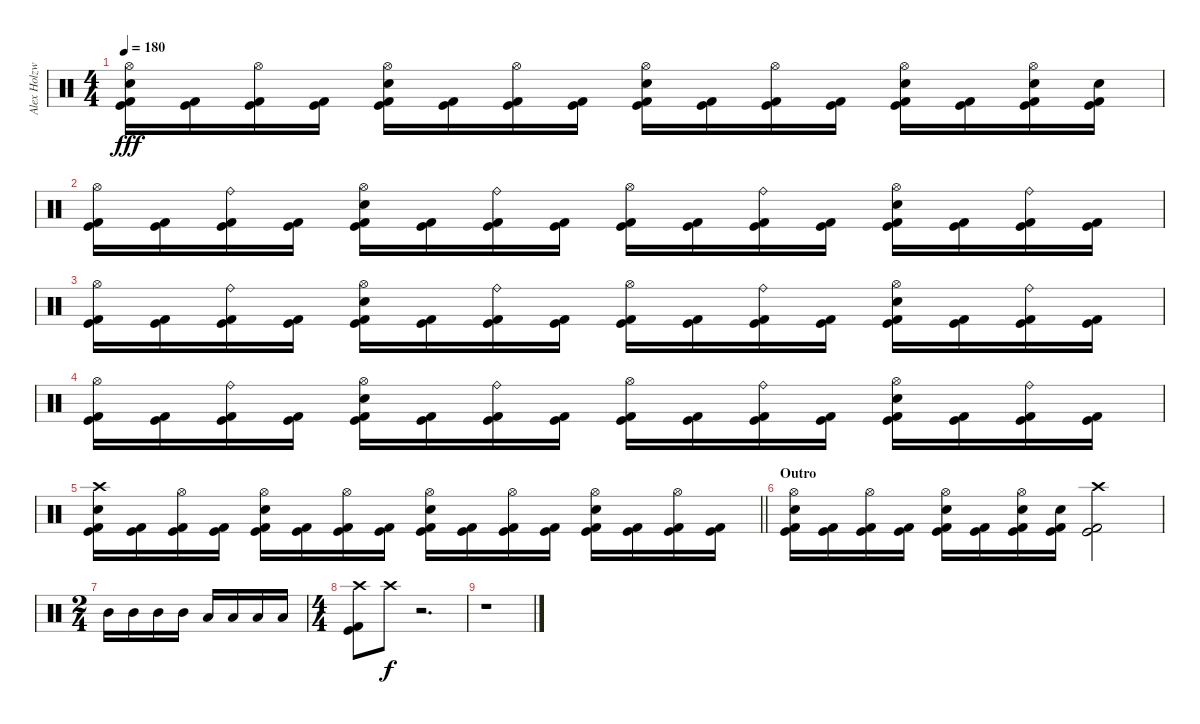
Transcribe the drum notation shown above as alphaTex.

\track ("Alex Holzwarth" "Alex Holzw") {instrument percussion}
\staff {score}
\articulation defaults
\ts (4 4)
\tempo 180
\clef neutral
\ks c
("Hi-Hat (open)" "Snare (hit) 2" "Kick (hit)" "Kick (hit) 2").16{dy fff} ("Kick (hit)" "Kick (hit) 2").16 ("Hi-Hat (open)" "Kick (hit)" "Kick (hit) 2").16 ("Kick (hit)" "Kick (hit) 2").16 ("Hi-Hat (open)" "Snare (hit) 2" "Kick (hit)" "Kick (hit) 2").16 ("Kick (hit)" "Kick (hit) 2").16 ("Hi-Hat (open)" "Kick (hit)" "Kick (hit) 2").16 ("Kick (hit)" "Kick (hit) 2").16 ("Hi-Hat (open)" "Snare (hit) 2" "Kick (hit)" "Kick (hit) 2").16 ("Kick (hit)" "Kick (hit) 2").16 ("Hi-Hat (open)" "Kick (hit)" "Kick (hit) 2").16 ("Kick (hit)" "Kick (hit) 2").16 ("Hi-Hat (open)" "Snare (hit) 2" "Kick (hit)" "Kick (hit) 2").16 ("Kick (hit)" "Kick (hit) 2").16 ("Hi-Hat (open)" "Snare (hit) 2" "Kick (hit)" "Kick (hit) 2").16 ("Snare (hit) 2" "Kick (hit)" "Kick (hit) 2").16 |
("Hi-Hat (open)" "Kick (hit)" "Kick (hit) 2").16 ("Kick (hit)" "Kick (hit) 2").16 ("Ride (bell)" "Kick (hit)" "Kick (hit) 2").16 ("Kick (hit)" "Kick (hit) 2").16 ("Hi-Hat (open)" "Snare (hit) 2" "Kick (hit)" "Kick (hit) 2").16 ("Kick (hit)" "Kick (hit) 2").16 ("Ride (bell)" "Kick (hit)" "Kick (hit) 2").16 ("Kick (hit)" "Kick (hit) 2").16 ("Hi-Hat (open)" "Kick (hit)" "Kick (hit) 2").16 ("Kick (hit)" "Kick (hit) 2").16 ("Ride (bell)" "Kick (hit)" "Kick (hit) 2").16 ("Kick (hit)" "Kick (hit) 2").16 ("Hi-Hat (open)" "Snare (hit) 2" "Kick (hit)" "Kick (hit) 2").16 ("Kick (hit)" "Kick (hit) 2").16 ("Ride (bell)" "Kick (hit)" "Kick (hit) 2").16 ("Kick (hit)" "Kick (hit) 2").16 |
("Hi-Hat (open)" "Kick (hit)" "Kick (hit) 2").16 ("Kick (hit)" "Kick (hit) 2").16 ("Ride (bell)" "Kick (hit)" "Kick (hit) 2").16 ("Kick (hit)" "Kick (hit) 2").16 ("Hi-Hat (open)" "Snare (hit) 2" "Kick (hit)" "Kick (hit) 2").16 ("Kick (hit)" "Kick (hit) 2").16 ("Ride (bell)" "Kick (hit)" "Kick (hit) 2").16 ("Kick (hit)" "Kick (hit) 2").16 ("Hi-Hat (open)" "Kick (hit)" "Kick (hit) 2").16 ("Kick (hit)" "Kick (hit) 2").16 ("Ride (bell)" "Kick (hit)" "Kick (hit) 2").16 ("Kick (hit)" "Kick (hit) 2").16 ("Hi-Hat (open)" "Snare (hit) 2" "Kick (hit)" "Kick (hit) 2").16 ("Kick (hit)" "Kick (hit) 2").16 ("Ride (bell)" "Kick (hit)" "Kick (hit) 2").16 ("Kick (hit)" "Kick (hit) 2").16 |
("Hi-Hat (open)" "Kick (hit)" "Kick (hit) 2").16 ("Kick (hit)" "Kick (hit) 2").16 ("Ride (bell)" "Kick (hit)" "Kick (hit) 2").16 ("Kick (hit)" "Kick (hit) 2").16 ("Hi-Hat (open)" "Snare (hit) 2" "Kick (hit)" "Kick (hit) 2").16 ("Kick (hit)" "Kick (hit) 2").16 ("Ride (bell)" "Kick (hit)" "Kick (hit) 2").16 ("Kick (hit)" "Kick (hit) 2").16 ("Hi-Hat (open)" "Kick (hit)" "Kick (hit) 2").16 ("Kick (hit)" "Kick (hit) 2").16 ("Ride (bell)" "Kick (hit)" "Kick (hit) 2").16 ("Kick (hit)" "Kick (hit) 2").16 ("Hi-Hat (open)" "Snare (hit) 2" "Kick (hit)" "Kick (hit) 2").16 ("Kick (hit)" "Kick (hit) 2").16 ("Ride (bell)" "Kick (hit)" "Kick (hit) 2").16 ("Kick (hit)" "Kick (hit) 2").16 |
\barLineRight lightlight
("Crash high (hit)" "Snare (hit) 2" "Kick (hit)" "Kick (hit) 2").16 ("Kick (hit)" "Kick (hit) 2").16 ("Hi-Hat (open)" "Kick (hit)" "Kick (hit) 2").16 ("Kick (hit)" "Kick (hit) 2").16 ("Hi-Hat (open)" "Snare (hit) 2" "Kick (hit)" "Kick (hit) 2").16 ("Kick (hit)" "Kick (hit) 2").16 ("Hi-Hat (open)" "Kick (hit)" "Kick (hit) 2").16 ("Kick (hit)" "Kick (hit) 2").16 ("Hi-Hat (open)" "Snare (hit) 2" "Kick (hit)" "Kick (hit) 2").16 ("Kick (hit)" "Kick (hit) 2").16 ("Hi-Hat (open)" "Kick (hit)" "Kick (hit) 2").16 ("Kick (hit)" "Kick (hit) 2").16 ("Hi-Hat (open)" "Snare (hit) 2" "Kick (hit)" "Kick (hit) 2").16 ("Kick (hit)" "Kick (hit) 2").16 ("Hi-Hat (open)" "Kick (hit)" "Kick (hit) 2").16 ("Kick (hit)" "Kick (hit) 2").16 |
\section ("" "Outro")
("Hi-Hat (open)" "Snare (hit) 2" "Kick (hit)" "Kick (hit) 2").16 ("Kick (hit)" "Kick (hit) 2").16 ("Hi-Hat (open)" "Kick (hit)" "Kick (hit) 2").16 ("Kick (hit)" "Kick (hit) 2").16 ("Hi-Hat (open)" "Snare (hit) 2" "Kick (hit)" "Kick (hit) 2").16 ("Kick (hit)" "Kick (hit) 2").16 ("Hi-Hat (open)" "Snare (hit) 2" "Kick (hit)" "Kick (hit) 2").16 ("Snare (hit) 2" "Kick (hit)" "Kick (hit) 2").16 ("Crash high (hit)" "Kick (hit)" "Kick (hit) 2").2 |
\ts (2 4)
"Mid Tom (hit)".16 "Mid Tom (hit)".16 "Mid Tom (hit)".16 "Mid Tom (hit)".16 "Low Tom (hit)".16 "Low Tom (hit)".16 "Low Tom (hit)".16 "Low Tom (hit)".16 |
\ts (4 4)
("Crash high (hit)" "Kick (hit)" "Kick (hit) 2").8 "Crash high (hit)".8{dy f volume 0} r.2{d} |
r.1
